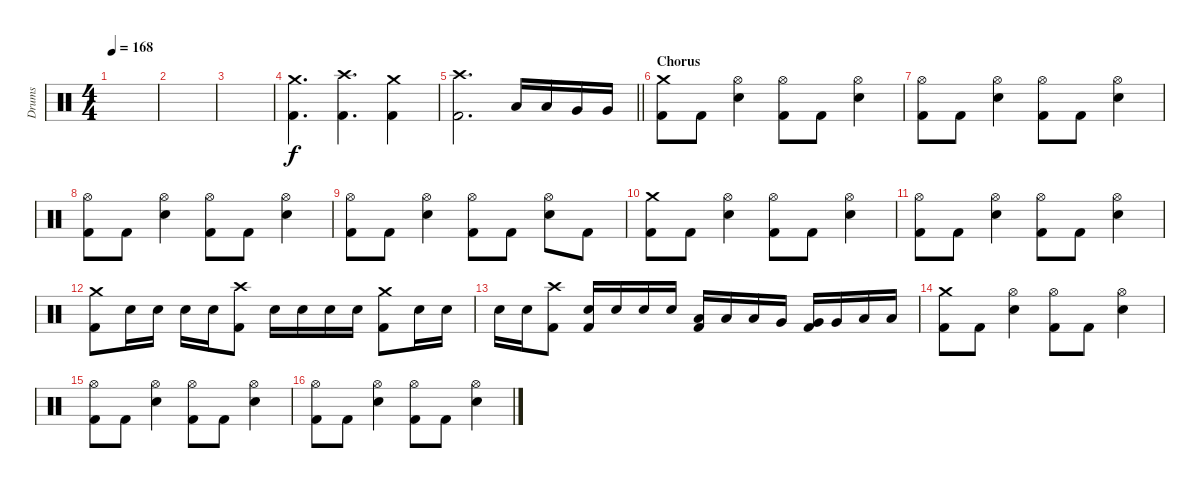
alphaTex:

\track ("Drums" "Drums") {instrument percussion}
\staff {score}
\articulation defaults
\ts (4 4)
\tempo 168
\clef neutral
\ks c
|
|
|
("Crash medium (hit)" "Kick (hit) 2").4{d} ("Crash high (hit)" "Kick (hit) 2").4{d} ("Crash medium (hit)" "Kick (hit) 2").4 |
\barLineRight lightlight
("Crash high (hit)" "Kick (hit) 2").2{d} "Low Tom (hit)".16 "Low Tom (hit)".16 "Very Low Tom (hit)".16 "Very Low Tom (hit)".16 |
\section ("" "Chorus")
("Crash medium (hit)" "Kick (hit) 2").8 "Kick (hit) 2".8 ("Hi-Hat (open)" "Electric Snare (hit)").4 ("Hi-Hat (open)" "Kick (hit) 2").8 "Kick (hit) 2".8 ("Hi-Hat (open)" "Electric Snare (hit)").4 |
("Hi-Hat (open)" "Kick (hit) 2").8 "Kick (hit) 2".8 ("Hi-Hat (open)" "Electric Snare (hit)").4 ("Hi-Hat (open)" "Kick (hit) 2").8 "Kick (hit) 2".8 ("Hi-Hat (open)" "Electric Snare (hit)").4 |
("Hi-Hat (open)" "Kick (hit) 2").8 "Kick (hit) 2".8 ("Hi-Hat (open)" "Electric Snare (hit)").4 ("Hi-Hat (open)" "Kick (hit) 2").8 "Kick (hit) 2".8 ("Hi-Hat (open)" "Electric Snare (hit)").4 |
("Hi-Hat (open)" "Kick (hit) 2").8 "Kick (hit) 2".8 ("Hi-Hat (open)" "Electric Snare (hit)").4 ("Hi-Hat (open)" "Kick (hit) 2").8 "Kick (hit) 2".8 ("Hi-Hat (open)" "Electric Snare (hit)").8 "Kick (hit) 2".8 |
("Crash medium (hit)" "Kick (hit) 2").8 "Kick (hit) 2".8 ("Hi-Hat (open)" "Electric Snare (hit)").4 ("Hi-Hat (open)" "Kick (hit) 2").8 "Kick (hit) 2".8 ("Hi-Hat (open)" "Electric Snare (hit)").4 |
("Hi-Hat (open)" "Kick (hit) 2").8 "Kick (hit) 2".8 ("Hi-Hat (open)" "Electric Snare (hit)").4 ("Hi-Hat (open)" "Kick (hit) 2").8 "Kick (hit) 2".8 ("Hi-Hat (open)" "Electric Snare (hit)").4 |
("Crash medium (hit)" "Kick (hit) 2").8 "Electric Snare (hit)".16 "Electric Snare (hit)".16 "Electric Snare (hit)".16 "Electric Snare (hit)".16 ("Crash high (hit)" "Kick (hit) 2").8 "Electric Snare (hit)".16 "Electric Snare (hit)".16 "Electric Snare (hit)".16 "Electric Snare (hit)".16 ("Crash medium (hit)" "Kick (hit) 2").8 "Electric Snare (hit)".16 "Electric Snare (hit)".16 |
"Electric Snare (hit)".16 "Electric Snare (hit)".16 ("Crash high (hit)" "Kick (hit) 2").8 ("Electric Snare (hit)" "Kick (hit) 2").16 "Electric Snare (hit)".16 "Electric Snare (hit)".16 "Electric Snare (hit)".16 ("Low Tom (hit)" "Kick (hit) 2").16 "Low Tom (hit)".16 "Low Tom (hit)".16 "Very Low Tom (hit)".16 ("Very Low Tom (hit)" "Kick (hit) 2").16 "Very Low Tom (hit)".16 "Low Floor Tom (hit)".16 "Low Floor Tom (hit)".16 |
("Crash medium (hit)" "Kick (hit) 2").8 "Kick (hit) 2".8 ("Hi-Hat (open)" "Electric Snare (hit)").4 ("Hi-Hat (open)" "Kick (hit) 2").8 "Kick (hit) 2".8 ("Hi-Hat (open)" "Electric Snare (hit)").4 |
("Hi-Hat (open)" "Kick (hit) 2").8 "Kick (hit) 2".8 ("Hi-Hat (open)" "Electric Snare (hit)").4 ("Hi-Hat (open)" "Kick (hit) 2").8 "Kick (hit) 2".8 ("Hi-Hat (open)" "Electric Snare (hit)").4 |
("Hi-Hat (open)" "Kick (hit) 2").8 "Kick (hit) 2".8 ("Hi-Hat (open)" "Electric Snare (hit)").4 ("Hi-Hat (open)" "Kick (hit) 2").8 "Kick (hit) 2".8 ("Hi-Hat (open)" "Electric Snare (hit)").4
